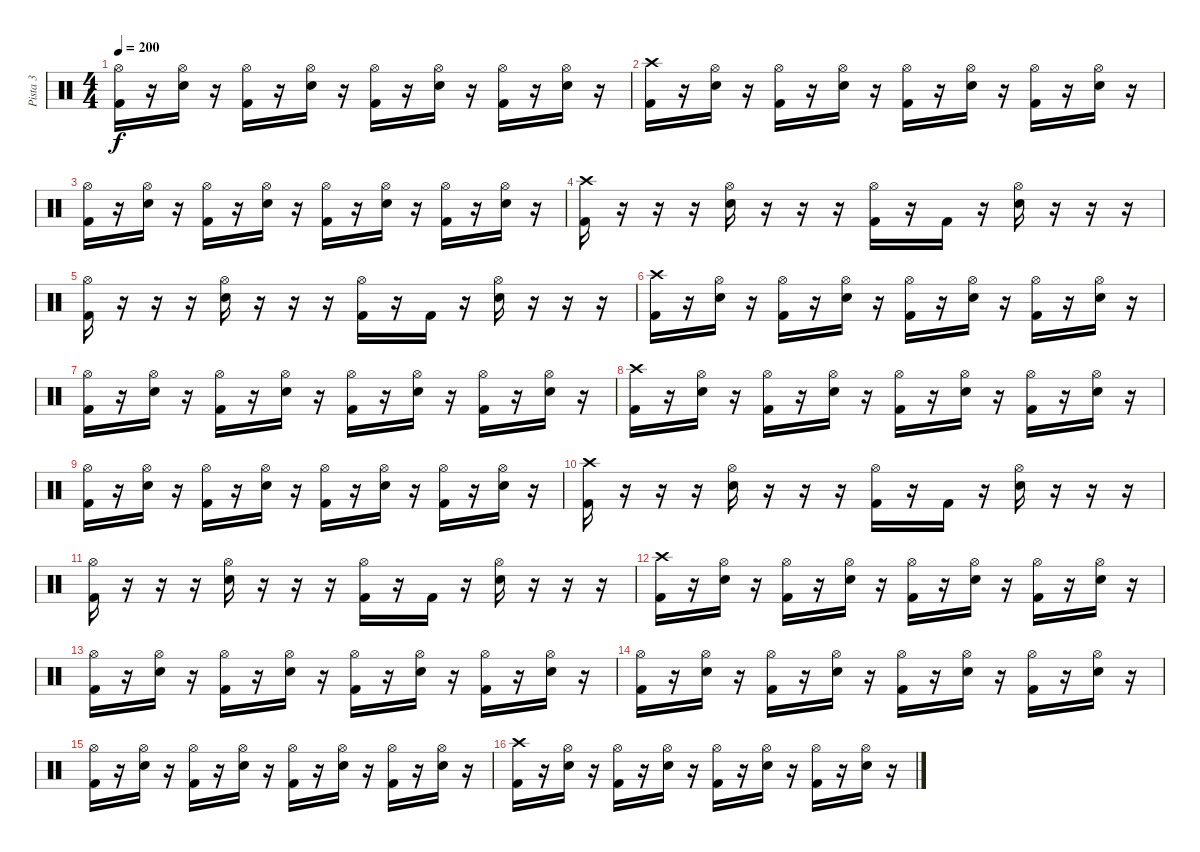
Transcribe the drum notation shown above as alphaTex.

\track ("Pista 3" "Pista 3") {instrument percussion}
\staff {score}
\articulation defaults
\ts (4 4)
\tempo 200
\clef neutral
\ks c
("Hi-Hat (open)" "Kick (hit) 2").16{dy f} r.16 ("Hi-Hat (open)" "Electric Snare (hit)").16 r.16 ("Hi-Hat (open)" "Kick (hit) 2").16 r.16 ("Hi-Hat (open)" "Electric Snare (hit)").16 r.16 ("Hi-Hat (open)" "Kick (hit) 2").16 r.16 ("Hi-Hat (open)" "Electric Snare (hit)").16 r.16 ("Hi-Hat (open)" "Kick (hit) 2").16 r.16 ("Hi-Hat (open)" "Electric Snare (hit)").16 r.16 |
("Crash high (hit)" "Kick (hit) 2").16 r.16 ("Hi-Hat (open)" "Electric Snare (hit)").16 r.16 ("Hi-Hat (open)" "Kick (hit) 2").16 r.16 ("Hi-Hat (open)" "Electric Snare (hit)").16 r.16 ("Hi-Hat (open)" "Kick (hit) 2").16 r.16 ("Hi-Hat (open)" "Electric Snare (hit)").16 r.16 ("Hi-Hat (open)" "Kick (hit) 2").16 r.16 ("Hi-Hat (open)" "Electric Snare (hit)").16 r.16 |
("Hi-Hat (open)" "Kick (hit) 2").16 r.16 ("Hi-Hat (open)" "Electric Snare (hit)").16 r.16 ("Hi-Hat (open)" "Kick (hit) 2").16 r.16 ("Hi-Hat (open)" "Electric Snare (hit)").16 r.16 ("Hi-Hat (open)" "Kick (hit) 2").16 r.16 ("Hi-Hat (open)" "Electric Snare (hit)").16 r.16 ("Hi-Hat (open)" "Kick (hit) 2").16 r.16 ("Hi-Hat (open)" "Electric Snare (hit)").16 r.16 |
("Crash high (hit)" "Kick (hit) 2").16 r.16 r.16 r.16 ("Hi-Hat (open)" "Electric Snare (hit)").16 r.16 r.16 r.16 ("Hi-Hat (open)" "Kick (hit) 2").16 r.16 "Kick (hit) 2".16 r.16 ("Hi-Hat (open)" "Electric Snare (hit)").16 r.16 r.16 r.16 |
("Hi-Hat (open)" "Kick (hit) 2").16 r.16 r.16 r.16 ("Hi-Hat (open)" "Electric Snare (hit)").16 r.16 r.16 r.16 ("Hi-Hat (open)" "Kick (hit) 2").16 r.16 "Kick (hit) 2".16 r.16 ("Hi-Hat (open)" "Electric Snare (hit)").16 r.16 r.16 r.16 |
("Crash high (hit)" "Kick (hit) 2").16 r.16 ("Hi-Hat (open)" "Electric Snare (hit)").16 r.16 ("Hi-Hat (open)" "Kick (hit) 2").16 r.16 ("Hi-Hat (open)" "Electric Snare (hit)").16 r.16 ("Hi-Hat (open)" "Kick (hit) 2").16 r.16 ("Hi-Hat (open)" "Electric Snare (hit)").16 r.16 ("Hi-Hat (open)" "Kick (hit) 2").16 r.16 ("Hi-Hat (open)" "Electric Snare (hit)").16 r.16 |
("Hi-Hat (open)" "Kick (hit) 2").16 r.16 ("Hi-Hat (open)" "Electric Snare (hit)").16 r.16 ("Hi-Hat (open)" "Kick (hit) 2").16 r.16 ("Hi-Hat (open)" "Electric Snare (hit)").16 r.16 ("Hi-Hat (open)" "Kick (hit) 2").16 r.16 ("Hi-Hat (open)" "Electric Snare (hit)").16 r.16 ("Hi-Hat (open)" "Kick (hit) 2").16 r.16 ("Hi-Hat (open)" "Electric Snare (hit)").16 r.16 |
("Crash high (hit)" "Kick (hit) 2").16 r.16 ("Hi-Hat (open)" "Electric Snare (hit)").16 r.16 ("Hi-Hat (open)" "Kick (hit) 2").16 r.16 ("Hi-Hat (open)" "Electric Snare (hit)").16 r.16 ("Hi-Hat (open)" "Kick (hit) 2").16 r.16 ("Hi-Hat (open)" "Electric Snare (hit)").16 r.16 ("Hi-Hat (open)" "Kick (hit) 2").16 r.16 ("Hi-Hat (open)" "Electric Snare (hit)").16 r.16 |
("Hi-Hat (open)" "Kick (hit) 2").16 r.16 ("Hi-Hat (open)" "Electric Snare (hit)").16 r.16 ("Hi-Hat (open)" "Kick (hit) 2").16 r.16 ("Hi-Hat (open)" "Electric Snare (hit)").16 r.16 ("Hi-Hat (open)" "Kick (hit) 2").16 r.16 ("Hi-Hat (open)" "Electric Snare (hit)").16 r.16 ("Hi-Hat (open)" "Kick (hit) 2").16 r.16 ("Hi-Hat (open)" "Electric Snare (hit)").16 r.16 |
("Crash high (hit)" "Kick (hit) 2").16 r.16 r.16 r.16 ("Hi-Hat (open)" "Electric Snare (hit)").16 r.16 r.16 r.16 ("Hi-Hat (open)" "Kick (hit) 2").16 r.16 "Kick (hit) 2".16 r.16 ("Hi-Hat (open)" "Electric Snare (hit)").16 r.16 r.16 r.16 |
("Hi-Hat (open)" "Kick (hit) 2").16 r.16 r.16 r.16 ("Hi-Hat (open)" "Electric Snare (hit)").16 r.16 r.16 r.16 ("Hi-Hat (open)" "Kick (hit) 2").16 r.16 "Kick (hit) 2".16 r.16 ("Hi-Hat (open)" "Electric Snare (hit)").16 r.16 r.16 r.16 |
("Crash high (hit)" "Kick (hit) 2").16 r.16 ("Hi-Hat (open)" "Electric Snare (hit)").16 r.16 ("Hi-Hat (open)" "Kick (hit) 2").16 r.16 ("Hi-Hat (open)" "Electric Snare (hit)").16 r.16 ("Hi-Hat (open)" "Kick (hit) 2").16 r.16 ("Hi-Hat (open)" "Electric Snare (hit)").16 r.16 ("Hi-Hat (open)" "Kick (hit) 2").16 r.16 ("Hi-Hat (open)" "Electric Snare (hit)").16 r.16 |
("Hi-Hat (open)" "Kick (hit) 2").16 r.16 ("Hi-Hat (open)" "Electric Snare (hit)").16 r.16 ("Hi-Hat (open)" "Kick (hit) 2").16 r.16 ("Hi-Hat (open)" "Electric Snare (hit)").16 r.16 ("Hi-Hat (open)" "Kick (hit) 2").16 r.16 ("Hi-Hat (open)" "Electric Snare (hit)").16 r.16 ("Hi-Hat (open)" "Kick (hit) 2").16 r.16 ("Hi-Hat (open)" "Electric Snare (hit)").16 r.16 |
("Hi-Hat (open)" "Kick (hit) 2").16 r.16 ("Hi-Hat (open)" "Electric Snare (hit)").16 r.16 ("Hi-Hat (open)" "Kick (hit) 2").16 r.16 ("Hi-Hat (open)" "Electric Snare (hit)").16 r.16 ("Hi-Hat (open)" "Kick (hit) 2").16 r.16 ("Hi-Hat (open)" "Electric Snare (hit)").16 r.16 ("Hi-Hat (open)" "Kick (hit) 2").16 r.16 ("Hi-Hat (open)" "Electric Snare (hit)").16 r.16 |
("Hi-Hat (open)" "Kick (hit) 2").16 r.16 ("Hi-Hat (open)" "Electric Snare (hit)").16 r.16 ("Hi-Hat (open)" "Kick (hit) 2").16 r.16 ("Hi-Hat (open)" "Electric Snare (hit)").16 r.16 ("Hi-Hat (open)" "Kick (hit) 2").16 r.16 ("Hi-Hat (open)" "Electric Snare (hit)").16 r.16 ("Hi-Hat (open)" "Kick (hit) 2").16 r.16 ("Hi-Hat (open)" "Electric Snare (hit)").16 r.16 |
("Crash high (hit)" "Kick (hit) 2").16 r.16 ("Hi-Hat (open)" "Electric Snare (hit)").16 r.16 ("Hi-Hat (open)" "Kick (hit) 2").16 r.16 ("Hi-Hat (open)" "Electric Snare (hit)").16 r.16 ("Hi-Hat (open)" "Kick (hit) 2").16 r.16 ("Hi-Hat (open)" "Electric Snare (hit)").16 r.16 ("Hi-Hat (open)" "Kick (hit) 2").16 r.16 ("Hi-Hat (open)" "Electric Snare (hit)").16 r.16
